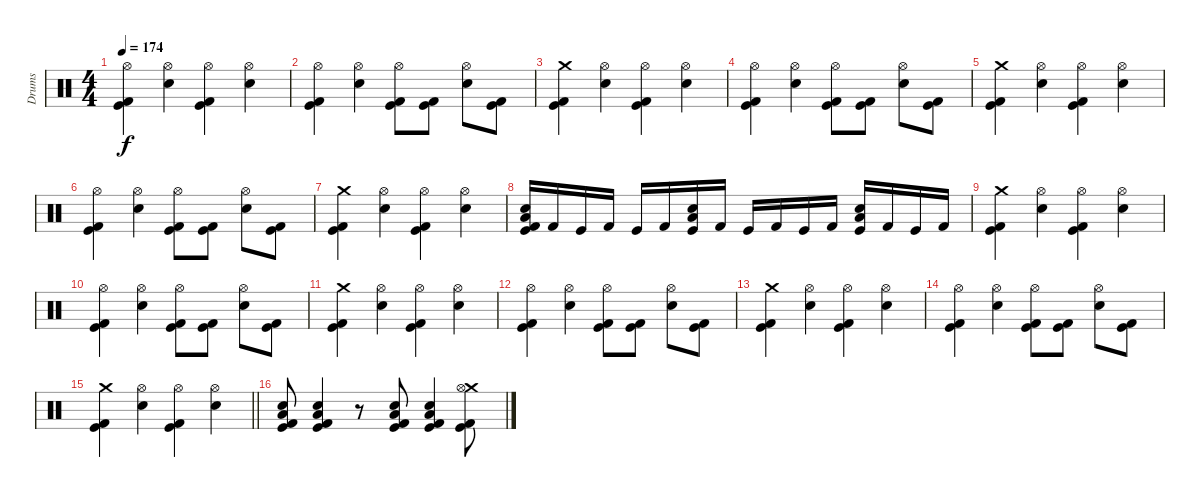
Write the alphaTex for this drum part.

\track ("Drums" "Drums") {instrument percussion}
\staff {score}
\articulation defaults
\ts (4 4)
\tempo 174
\clef neutral
\ks c
("Hi-Hat (open)" "Kick (hit) 2" "Kick (hit)").4{dy f} ("Hi-Hat (open)" "Electric Snare (hit)").4 ("Hi-Hat (open)" "Kick (hit) 2" "Kick (hit)").4 ("Hi-Hat (open)" "Electric Snare (hit)").4 |
("Hi-Hat (open)" "Kick (hit) 2" "Kick (hit)").4 ("Hi-Hat (open)" "Electric Snare (hit)").4 ("Hi-Hat (open)" "Kick (hit) 2" "Kick (hit)").8 ("Kick (hit) 2" "Kick (hit)").8 ("Hi-Hat (open)" "Electric Snare (hit)").8 ("Kick (hit) 2" "Kick (hit)").8 |
("Crash medium (hit)" "Kick (hit) 2" "Kick (hit)").4 ("Hi-Hat (open)" "Electric Snare (hit)").4 ("Hi-Hat (open)" "Kick (hit) 2" "Kick (hit)").4 ("Hi-Hat (open)" "Electric Snare (hit)").4 |
("Hi-Hat (open)" "Kick (hit) 2" "Kick (hit)").4 ("Hi-Hat (open)" "Electric Snare (hit)").4 ("Hi-Hat (open)" "Kick (hit) 2" "Kick (hit)").8 ("Kick (hit) 2" "Kick (hit)").8 ("Hi-Hat (open)" "Electric Snare (hit)").8 ("Kick (hit) 2" "Kick (hit)").8 |
("Crash medium (hit)" "Kick (hit) 2" "Kick (hit)").4 ("Hi-Hat (open)" "Electric Snare (hit)").4 ("Hi-Hat (open)" "Kick (hit) 2" "Kick (hit)").4 ("Hi-Hat (open)" "Electric Snare (hit)").4 |
("Hi-Hat (open)" "Kick (hit) 2" "Kick (hit)").4 ("Hi-Hat (open)" "Electric Snare (hit)").4 ("Hi-Hat (open)" "Kick (hit) 2" "Kick (hit)").8 ("Kick (hit) 2" "Kick (hit)").8 ("Hi-Hat (open)" "Electric Snare (hit)").8 ("Kick (hit) 2" "Kick (hit)").8 |
("Crash medium (hit)" "Kick (hit) 2" "Kick (hit)").4 ("Hi-Hat (open)" "Electric Snare (hit)").4 ("Hi-Hat (open)" "Kick (hit) 2" "Kick (hit)").4 ("Hi-Hat (open)" "Electric Snare (hit)").4 |
("Electric Snare (hit)" "Low Floor Tom (hit)" "Kick (hit) 2" "Kick (hit)").16 "Kick (hit) 2".16 "Kick (hit)".16 "Kick (hit) 2".16 "Kick (hit)".16 "Kick (hit) 2".16 ("Electric Snare (hit)" "Low Floor Tom (hit)" "Kick (hit)").16 "Kick (hit) 2".16 "Kick (hit)".16 "Kick (hit) 2".16 "Kick (hit)".16 "Kick (hit) 2".16 ("Electric Snare (hit)" "Low Floor Tom (hit)" "Kick (hit)").16 "Kick (hit) 2".16 "Kick (hit)".16 "Kick (hit) 2".16 |
("Crash medium (hit)" "Kick (hit) 2" "Kick (hit)").4 ("Hi-Hat (open)" "Electric Snare (hit)").4 ("Hi-Hat (open)" "Kick (hit) 2" "Kick (hit)").4 ("Hi-Hat (open)" "Electric Snare (hit)").4 |
("Hi-Hat (open)" "Kick (hit) 2" "Kick (hit)").4 ("Hi-Hat (open)" "Electric Snare (hit)").4 ("Hi-Hat (open)" "Kick (hit) 2" "Kick (hit)").8 ("Kick (hit) 2" "Kick (hit)").8 ("Hi-Hat (open)" "Electric Snare (hit)").8 ("Kick (hit) 2" "Kick (hit)").8 |
("Crash medium (hit)" "Kick (hit) 2" "Kick (hit)").4 ("Hi-Hat (open)" "Electric Snare (hit)").4 ("Hi-Hat (open)" "Kick (hit) 2" "Kick (hit)").4 ("Hi-Hat (open)" "Electric Snare (hit)").4 |
("Hi-Hat (open)" "Kick (hit) 2" "Kick (hit)").4 ("Hi-Hat (open)" "Electric Snare (hit)").4 ("Hi-Hat (open)" "Kick (hit) 2" "Kick (hit)").8 ("Kick (hit) 2" "Kick (hit)").8 ("Hi-Hat (open)" "Electric Snare (hit)").8 ("Kick (hit) 2" "Kick (hit)").8 |
("Crash medium (hit)" "Kick (hit) 2" "Kick (hit)").4 ("Hi-Hat (open)" "Electric Snare (hit)").4 ("Hi-Hat (open)" "Kick (hit) 2" "Kick (hit)").4 ("Hi-Hat (open)" "Electric Snare (hit)").4 |
("Hi-Hat (open)" "Kick (hit) 2" "Kick (hit)").4 ("Hi-Hat (open)" "Electric Snare (hit)").4 ("Hi-Hat (open)" "Kick (hit) 2" "Kick (hit)").8 ("Kick (hit) 2" "Kick (hit)").8 ("Hi-Hat (open)" "Electric Snare (hit)").8 ("Kick (hit) 2" "Kick (hit)").8 |
\barLineRight lightlight
("Crash medium (hit)" "Kick (hit) 2" "Kick (hit)").4 ("Hi-Hat (open)" "Electric Snare (hit)").4 ("Hi-Hat (open)" "Kick (hit) 2" "Kick (hit)").4 ("Hi-Hat (open)" "Electric Snare (hit)").4 |
("Electric Snare (hit)" "Low Tom (hit)" "Kick (hit) 2" "Kick (hit)").8 ("Electric Snare (hit)" "Low Tom (hit)" "Kick (hit) 2" "Kick (hit)").4 r.8 ("Electric Snare (hit)" "Low Tom (hit)" "Kick (hit) 2" "Kick (hit)").8 ("Electric Snare (hit)" "Low Tom (hit)" "Kick (hit) 2" "Kick (hit)").4 ("Crash medium (hit)" "Hi-Hat (open)" "Kick (hit) 2" "Kick (hit)").8
